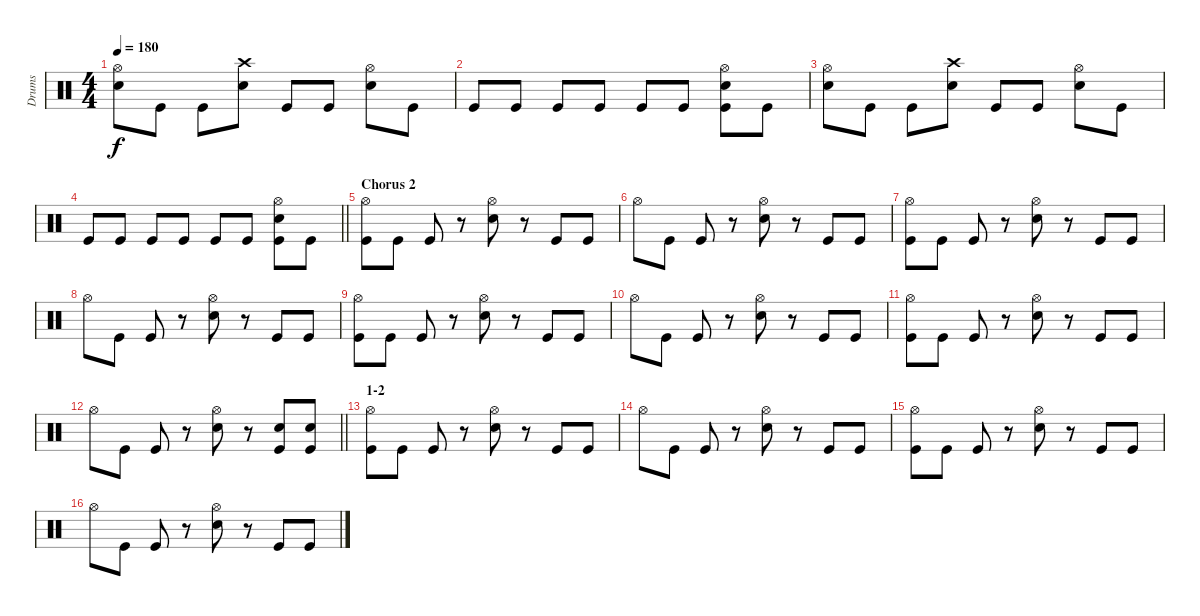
\track ("Drums" "Drums") {instrument percussion}
\staff {score}
\articulation defaults
\ts (4 4)
\tempo 180
\clef neutral
\ks c
("Hi-Hat (open)" "Electric Snare (hit)").8{dy f} "Kick (hit)".8 "Kick (hit)".8 ("Crash high (hit)" "Electric Snare (hit)").8 "Kick (hit)".8 "Kick (hit)".8 ("Hi-Hat (open)" "Electric Snare (hit)").8 "Kick (hit)".8 |
"Kick (hit)".8 "Kick (hit)".8 "Kick (hit)".8 "Kick (hit)".8 "Kick (hit)".8 "Kick (hit)".8 ("Hi-Hat (open)" "Electric Snare (hit)" "Kick (hit)").8 "Kick (hit)".8 |
("Hi-Hat (open)" "Electric Snare (hit)").8 "Kick (hit)".8 "Kick (hit)".8 ("Crash high (hit)" "Electric Snare (hit)").8 "Kick (hit)".8 "Kick (hit)".8 ("Hi-Hat (open)" "Electric Snare (hit)").8 "Kick (hit)".8 |
\barLineRight lightlight "Kick (hit)".8 "Kick (hit)".8 "Kick (hit)".8 "Kick (hit)".8 "Kick (hit)".8 "Kick (hit)".8
("Hi-Hat (open)" "Electric Snare (hit)" "Kick (hit)").8 "Kick (hit)".8 |
\section ("" "Chorus 2")
("Hi-Hat (open)" "Kick (hit)").8 "Kick (hit)".8 "Kick (hit)".8 r.8 ("Hi-Hat (open)" "Electric Snare (hit)").8 r.8 "Kick (hit)".8 "Kick (hit)".8 |
"Hi-Hat (open)".8 "Kick (hit)".8 "Kick (hit)".8 r.8 ("Hi-Hat (open)" "Electric Snare (hit)").8 r.8 "Kick (hit)".8 "Kick (hit)".8 |
("Hi-Hat (open)" "Kick (hit)").8 "Kick (hit)".8 "Kick (hit)".8 r.8 ("Hi-Hat (open)" "Electric Snare (hit)").8 r.8 "Kick (hit)".8 "Kick (hit)".8 |
"Hi-Hat (open)".8 "Kick (hit)".8 "Kick (hit)".8 r.8 ("Hi-Hat (open)" "Electric Snare (hit)").8 r.8 "Kick (hit)".8 "Kick (hit)".8 |
("Hi-Hat (open)" "Kick (hit)").8 "Kick (hit)".8 "Kick (hit)".8 r.8 ("Hi-Hat (open)" "Electric Snare (hit)").8 r.8 "Kick (hit)".8 "Kick (hit)".8 |
"Hi-Hat (open)".8 "Kick (hit)".8 "Kick (hit)".8 r.8 ("Hi-Hat (open)" "Electric Snare (hit)").8 r.8 "Kick (hit)".8 "Kick (hit)".8 |
("Hi-Hat (open)" "Kick (hit)").8 "Kick (hit)".8 "Kick (hit)".8 r.8 ("Hi-Hat (open)" "Electric Snare (hit)").8 r.8 "Kick (hit)".8 "Kick (hit)".8 |
\barLineRight lightlight "Hi-Hat (open)".8 "Kick (hit)".8 "Kick (hit)".8
r.8 ("Hi-Hat (open)" "Electric Snare (hit)").8 r.8 ("Electric Snare (hit)" "Kick (hit)").8 ("Electric Snare (hit)" "Kick (hit)").8 |
\section ("" "1-2")
("Hi-Hat (open)" "Kick (hit)").8 "Kick (hit)".8 "Kick (hit)".8 r.8 ("Hi-Hat (open)" "Electric Snare (hit)").8 r.8 "Kick (hit)".8 "Kick (hit)".8 |
"Hi-Hat (open)".8 "Kick (hit)".8 "Kick (hit)".8 r.8 ("Hi-Hat (open)" "Electric Snare (hit)").8 r.8 "Kick (hit)".8 "Kick (hit)".8 |
("Hi-Hat (open)" "Kick (hit)").8 "Kick (hit)".8 "Kick (hit)".8 r.8 ("Hi-Hat (open)" "Electric Snare (hit)").8 r.8 "Kick (hit)".8 "Kick (hit)".8 |
"Hi-Hat (open)".8 "Kick (hit)".8 "Kick (hit)".8 r.8 ("Hi-Hat (open)" "Electric Snare (hit)").8 r.8 "Kick (hit)".8 "Kick (hit)".8
